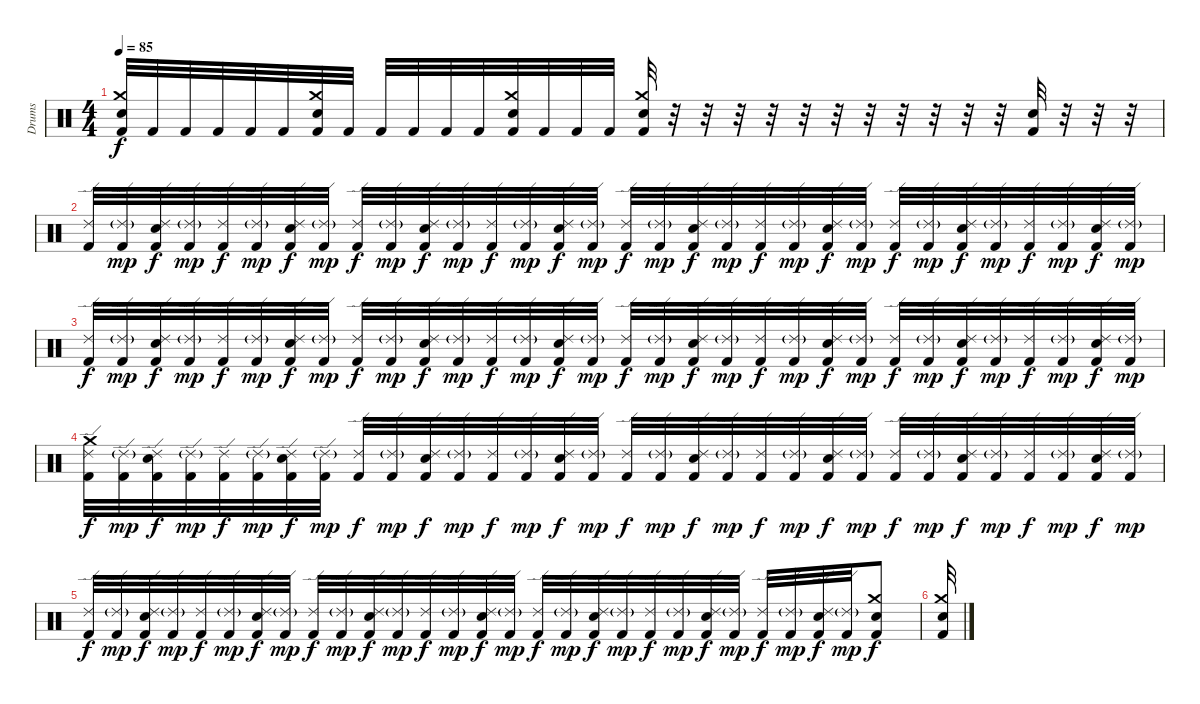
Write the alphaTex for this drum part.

\track ("Drums" "Drums") {instrument percussion}
\staff {score}
\articulation defaults
\ts (4 4)
\tempo 85
\clef neutral
\ks c
("Snare (hit) 2" "Crash medium (hit)" "Kick (hit) 2").32{dy f} "Kick (hit) 2".32 "Kick (hit) 2".32 "Kick (hit) 2".32 "Kick (hit) 2".32 "Kick (hit) 2".32 ("Snare (hit) 2" "Crash medium (hit)" "Kick (hit) 2").32 "Kick (hit) 2".32 "Kick (hit) 2".32 "Kick (hit) 2".32 "Kick (hit) 2".32 "Kick (hit) 2".32 ("Snare (hit) 2" "Crash medium (hit)" "Kick (hit) 2").32 "Kick (hit) 2".32 "Kick (hit) 2".32 "Kick (hit) 2".32 ("Snare (hit) 2" "Crash medium (hit)" "Kick (hit) 2").32 r.32 r.32 r.32 r.32 r.32 r.32 r.32 r.32 r.32 r.32 r.32 ("Snare (hit) 2" "Kick (hit) 2").32 r.32 r.32 r.32 |
("Ride (edge) 2" "Kick (hit) 2").32 ("Ride (edge) 2"{g} "Kick (hit) 2").32{dy mp} ("Snare (hit) 2" "Ride (edge) 2" "Kick (hit) 2").32{dy f} ("Ride (edge) 2"{g} "Kick (hit) 2").32{dy mp} ("Ride (edge) 2" "Kick (hit) 2").32{dy f} ("Ride (edge) 2"{g} "Kick (hit) 2").32{dy mp} ("Snare (hit) 2" "Ride (edge) 2" "Kick (hit) 2").32{dy f} ("Ride (edge) 2"{g} "Kick (hit) 2").32{dy mp} ("Ride (edge) 2" "Kick (hit) 2").32{dy f} ("Ride (edge) 2"{g} "Kick (hit) 2").32{dy mp} ("Snare (hit) 2" "Ride (edge) 2" "Kick (hit) 2").32{dy f} ("Ride (edge) 2"{g} "Kick (hit) 2").32{dy mp} ("Ride (edge) 2" "Kick (hit) 2").32{dy f} ("Ride (edge) 2"{g} "Kick (hit) 2").32{dy mp} ("Snare (hit) 2" "Ride (edge) 2" "Kick (hit) 2").32{dy f} ("Ride (edge) 2"{g} "Kick (hit) 2").32{dy mp} ("Ride (edge) 2" "Kick (hit) 2").32{dy f} ("Ride (edge) 2"{g} "Kick (hit) 2").32{dy mp} ("Snare (hit) 2" "Ride (edge) 2" "Kick (hit) 2").32{dy f} ("Ride (edge) 2"{g} "Kick (hit) 2").32{dy mp} ("Ride (edge) 2" "Kick (hit) 2").32{dy f} ("Ride (edge) 2"{g} "Kick (hit) 2").32{dy mp} ("Snare (hit) 2" "Ride (edge) 2" "Kick (hit) 2").32{dy f} ("Ride (edge) 2"{g} "Kick (hit) 2").32{dy mp} ("Ride (edge) 2" "Kick (hit) 2").32{dy f} ("Ride (edge) 2"{g} "Kick (hit) 2").32{dy mp} ("Snare (hit) 2" "Ride (edge) 2" "Kick (hit) 2").32{dy f} ("Ride (edge) 2"{g} "Kick (hit) 2").32{dy mp} ("Ride (edge) 2" "Kick (hit) 2").32{dy f} ("Ride (edge) 2"{g} "Kick (hit) 2").32{dy mp} ("Snare (hit) 2" "Ride (edge) 2" "Kick (hit) 2").32{dy f} ("Ride (edge) 2"{g} "Kick (hit) 2").32{dy mp} |
("Ride (edge) 2" "Kick (hit) 2").32{dy f} ("Ride (edge) 2"{g} "Kick (hit) 2").32{dy mp} ("Snare (hit) 2" "Ride (edge) 2" "Kick (hit) 2").32{dy f} ("Ride (edge) 2"{g} "Kick (hit) 2").32{dy mp} ("Ride (edge) 2" "Kick (hit) 2").32{dy f} ("Ride (edge) 2"{g} "Kick (hit) 2").32{dy mp} ("Snare (hit) 2" "Ride (edge) 2" "Kick (hit) 2").32{dy f} ("Ride (edge) 2"{g} "Kick (hit) 2").32{dy mp} ("Ride (edge) 2" "Kick (hit) 2").32{dy f} ("Ride (edge) 2"{g} "Kick (hit) 2").32{dy mp} ("Snare (hit) 2" "Ride (edge) 2" "Kick (hit) 2").32{dy f} ("Ride (edge) 2"{g} "Kick (hit) 2").32{dy mp} ("Ride (edge) 2" "Kick (hit) 2").32{dy f} ("Ride (edge) 2"{g} "Kick (hit) 2").32{dy mp} ("Snare (hit) 2" "Ride (edge) 2" "Kick (hit) 2").32{dy f} ("Ride (edge) 2"{g} "Kick (hit) 2").32{dy mp} ("Ride (edge) 2" "Kick (hit) 2").32{dy f} ("Ride (edge) 2"{g} "Kick (hit) 2").32{dy mp} ("Snare (hit) 2" "Ride (edge) 2" "Kick (hit) 2").32{dy f} ("Ride (edge) 2"{g} "Kick (hit) 2").32{dy mp} ("Ride (edge) 2" "Kick (hit) 2").32{dy f} ("Ride (edge) 2"{g} "Kick (hit) 2").32{dy mp} ("Snare (hit) 2" "Ride (edge) 2" "Kick (hit) 2").32{dy f} ("Ride (edge) 2"{g} "Kick (hit) 2").32{dy mp} ("Ride (edge) 2" "Kick (hit) 2").32{dy f} ("Ride (edge) 2"{g} "Kick (hit) 2").32{dy mp} ("Snare (hit) 2" "Ride (edge) 2" "Kick (hit) 2").32{dy f} ("Ride (edge) 2"{g} "Kick (hit) 2").32{dy mp} ("Ride (edge) 2" "Kick (hit) 2").32{dy f} ("Ride (edge) 2"{g} "Kick (hit) 2").32{dy mp} ("Snare (hit) 2" "Ride (edge) 2" "Kick (hit) 2").32{dy f} ("Ride (edge) 2"{g} "Kick (hit) 2").32{dy mp} |
("Crash medium (hit)" "Ride (edge) 2" "Kick (hit) 2").32{dy f} ("Ride (edge) 2"{g} "Kick (hit) 2").32{dy mp} ("Snare (hit) 2" "Ride (edge) 2" "Kick (hit) 2").32{dy f} ("Ride (edge) 2"{g} "Kick (hit) 2").32{dy mp} ("Ride (edge) 2" "Kick (hit) 2").32{dy f} ("Ride (edge) 2"{g} "Kick (hit) 2").32{dy mp} ("Snare (hit) 2" "Ride (edge) 2" "Kick (hit) 2").32{dy f} ("Ride (edge) 2"{g} "Kick (hit) 2").32{dy mp} ("Ride (edge) 2" "Kick (hit) 2").32{dy f} ("Ride (edge) 2"{g} "Kick (hit) 2").32{dy mp} ("Snare (hit) 2" "Ride (edge) 2" "Kick (hit) 2").32{dy f} ("Ride (edge) 2"{g} "Kick (hit) 2").32{dy mp} ("Ride (edge) 2" "Kick (hit) 2").32{dy f} ("Ride (edge) 2"{g} "Kick (hit) 2").32{dy mp} ("Snare (hit) 2" "Ride (edge) 2" "Kick (hit) 2").32{dy f} ("Ride (edge) 2"{g} "Kick (hit) 2").32{dy mp} ("Ride (edge) 2" "Kick (hit) 2").32{dy f} ("Ride (edge) 2"{g} "Kick (hit) 2").32{dy mp} ("Snare (hit) 2" "Ride (edge) 2" "Kick (hit) 2").32{dy f} ("Ride (edge) 2"{g} "Kick (hit) 2").32{dy mp} ("Ride (edge) 2" "Kick (hit) 2").32{dy f} ("Ride (edge) 2"{g} "Kick (hit) 2").32{dy mp} ("Snare (hit) 2" "Ride (edge) 2" "Kick (hit) 2").32{dy f} ("Ride (edge) 2"{g} "Kick (hit) 2").32{dy mp} ("Ride (edge) 2" "Kick (hit) 2").32{dy f} ("Ride (edge) 2"{g} "Kick (hit) 2").32{dy mp} ("Snare (hit) 2" "Ride (edge) 2" "Kick (hit) 2").32{dy f} ("Ride (edge) 2"{g} "Kick (hit) 2").32{dy mp} ("Ride (edge) 2" "Kick (hit) 2").32{dy f} ("Ride (edge) 2"{g} "Kick (hit) 2").32{dy mp} ("Snare (hit) 2" "Ride (edge) 2" "Kick (hit) 2").32{dy f} ("Ride (edge) 2"{g} "Kick (hit) 2").32{dy mp} |
("Ride (edge) 2" "Kick (hit) 2").32{dy f} ("Ride (edge) 2"{g} "Kick (hit) 2").32{dy mp} ("Snare (hit) 2" "Ride (edge) 2" "Kick (hit) 2").32{dy f} ("Ride (edge) 2"{g} "Kick (hit) 2").32{dy mp} ("Ride (edge) 2" "Kick (hit) 2").32{dy f} ("Ride (edge) 2"{g} "Kick (hit) 2").32{dy mp} ("Snare (hit) 2" "Ride (edge) 2" "Kick (hit) 2").32{dy f} ("Ride (edge) 2"{g} "Kick (hit) 2").32{dy mp} ("Ride (edge) 2" "Kick (hit) 2").32{dy f} ("Ride (edge) 2"{g} "Kick (hit) 2").32{dy mp} ("Snare (hit) 2" "Ride (edge) 2" "Kick (hit) 2").32{dy f} ("Ride (edge) 2"{g} "Kick (hit) 2").32{dy mp} ("Ride (edge) 2" "Kick (hit) 2").32{dy f} ("Ride (edge) 2"{g} "Kick (hit) 2").32{dy mp} ("Snare (hit) 2" "Ride (edge) 2" "Kick (hit) 2").32{dy f} ("Ride (edge) 2"{g} "Kick (hit) 2").32{dy mp} ("Ride (edge) 2" "Kick (hit) 2").32{dy f} ("Ride (edge) 2"{g} "Kick (hit) 2").32{dy mp} ("Snare (hit) 2" "Ride (edge) 2" "Kick (hit) 2").32{dy f} ("Ride (edge) 2"{g} "Kick (hit) 2").32{dy mp} ("Ride (edge) 2" "Kick (hit) 2").32{dy f} ("Ride (edge) 2"{g} "Kick (hit) 2").32{dy mp} ("Snare (hit) 2" "Ride (edge) 2" "Kick (hit) 2").32{dy f} ("Ride (edge) 2"{g} "Kick (hit) 2").32{dy mp} ("Ride (edge) 2" "Kick (hit) 2").32{dy f} ("Ride (edge) 2"{g} "Kick (hit) 2").32{dy mp} ("Snare (hit) 2" "Ride (edge) 2" "Kick (hit) 2").32{dy f} ("Ride (edge) 2"{g} "Kick (hit) 2").32{dy mp} ("Snare (hit) 2" "Crash medium (hit)" "Kick (hit) 2").8{dy f} |
("Crash medium (hit)" "Snare (hit) 2" "Kick (hit) 2").32
